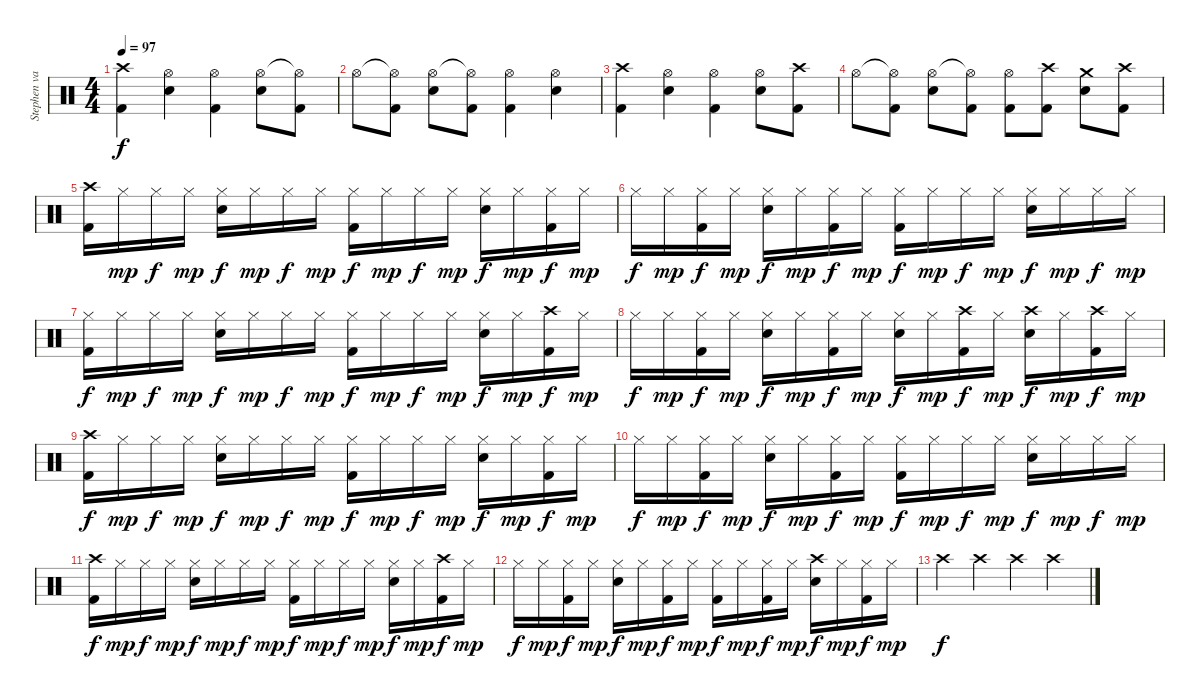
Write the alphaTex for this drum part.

\track ("Stephen van Haestregt (Drums)" "Stephen va") {instrument percussion}
\staff {score}
\articulation defaults
\ts (4 4)
\tempo 97
\clef neutral
\ks c
("Crash high (hit)" "Kick (hit) 2").4{dy f} ("Hi-Hat (open)" "Electric Snare (hit)").4 ("Hi-Hat (open)" "Kick (hit) 2").4 ("Hi-Hat (open)" "Electric Snare (hit)").8 ("Hi-Hat (open)"{t} "Kick (hit) 2").8 |
"Hi-Hat (open)".8 ("Hi-Hat (open)"{t} "Kick (hit) 2").8 ("Hi-Hat (open)" "Electric Snare (hit)").8 ("Hi-Hat (open)"{t} "Kick (hit) 2").8 ("Hi-Hat (open)" "Kick (hit) 2").4 ("Hi-Hat (open)" "Electric Snare (hit)").4 |
("Crash high (hit)" "Kick (hit) 2").4 ("Hi-Hat (open)" "Electric Snare (hit)").4 ("Hi-Hat (open)" "Kick (hit) 2").4 ("Hi-Hat (open)" "Electric Snare (hit)").8 ("Crash high (hit)" "Kick (hit) 2").8 |
"Hi-Hat (open)".8 ("Hi-Hat (open)"{t} "Kick (hit) 2").8 ("Hi-Hat (open)" "Electric Snare (hit)").8 ("Hi-Hat (open)"{t} "Kick (hit) 2").8 ("Hi-Hat (open)" "Kick (hit) 2").8 ("Crash high (hit)" "Kick (hit) 2").8 ("Crash medium (hit)" "Electric Snare (hit)").8 ("Crash high (hit)" "Kick (hit) 2").8 |
("Crash high (hit)" "Kick (hit) 2").16 "Hi-Hat (closed)".16{dy mp} "Hi-Hat (closed)".16{dy f} "Hi-Hat (closed)".16{dy mp} ("Hi-Hat (closed)" "Electric Snare (hit)").16{dy f} "Hi-Hat (closed)".16{dy mp} "Hi-Hat (closed)".16{dy f} "Hi-Hat (closed)".16{dy mp} ("Hi-Hat (closed)" "Kick (hit) 2").16{dy f} "Hi-Hat (closed)".16{dy mp} "Hi-Hat (closed)".16{dy f} "Hi-Hat (closed)".16{dy mp} ("Hi-Hat (closed)" "Electric Snare (hit)").16{dy f} "Hi-Hat (closed)".16{dy mp} ("Hi-Hat (closed)" "Kick (hit) 2").16{dy f} "Hi-Hat (closed)".16{dy mp} |
"Hi-Hat (closed)".16{dy f} "Hi-Hat (closed)".16{dy mp} ("Hi-Hat (closed)" "Kick (hit) 2").16{dy f} "Hi-Hat (closed)".16{dy mp} ("Hi-Hat (closed)" "Electric Snare (hit)").16{dy f} "Hi-Hat (closed)".16{dy mp} ("Hi-Hat (closed)" "Kick (hit) 2").16{dy f} "Hi-Hat (closed)".16{dy mp} ("Hi-Hat (closed)" "Kick (hit) 2").16{dy f} "Hi-Hat (closed)".16{dy mp} "Hi-Hat (closed)".16{dy f} "Hi-Hat (closed)".16{dy mp} ("Hi-Hat (closed)" "Electric Snare (hit)").16{dy f} "Hi-Hat (closed)".16{dy mp} "Hi-Hat (closed)".16{dy f} "Hi-Hat (closed)".16{dy mp} |
("Hi-Hat (closed)" "Kick (hit) 2").16{dy f} "Hi-Hat (closed)".16{dy mp} "Hi-Hat (closed)".16{dy f} "Hi-Hat (closed)".16{dy mp} ("Hi-Hat (closed)" "Electric Snare (hit)").16{dy f} "Hi-Hat (closed)".16{dy mp} "Hi-Hat (closed)".16{dy f} "Hi-Hat (closed)".16{dy mp} ("Hi-Hat (closed)" "Kick (hit) 2").16{dy f} "Hi-Hat (closed)".16{dy mp} "Hi-Hat (closed)".16{dy f} "Hi-Hat (closed)".16{dy mp} ("Hi-Hat (closed)" "Electric Snare (hit)").16{dy f} "Hi-Hat (closed)".16{dy mp} ("Crash high (hit)" "Kick (hit) 2").16{dy f} "Hi-Hat (closed)".16{dy mp} |
"Hi-Hat (closed)".16{dy f} "Hi-Hat (closed)".16{dy mp} ("Hi-Hat (closed)" "Kick (hit) 2").16{dy f} "Hi-Hat (closed)".16{dy mp} ("Hi-Hat (closed)" "Electric Snare (hit)").16{dy f} "Hi-Hat (closed)".16{dy mp} ("Hi-Hat (closed)" "Kick (hit) 2").16{dy f} "Hi-Hat (closed)".16{dy mp} ("Hi-Hat (closed)" "Electric Snare (hit)").16{dy f} "Hi-Hat (closed)".16{dy mp} ("Crash high (hit)" "Kick (hit) 2").16{dy f} "Hi-Hat (closed)".16{dy mp} ("Crash high (hit)" "Electric Snare (hit)").16{dy f} "Hi-Hat (closed)".16{dy mp} ("Crash high (hit)" "Kick (hit) 2").16{dy f} "Hi-Hat (closed)".16{dy mp} |
("Crash high (hit)" "Kick (hit) 2").16{dy f} "Hi-Hat (closed)".16{dy mp} "Hi-Hat (closed)".16{dy f} "Hi-Hat (closed)".16{dy mp} ("Hi-Hat (closed)" "Electric Snare (hit)").16{dy f} "Hi-Hat (closed)".16{dy mp} "Hi-Hat (closed)".16{dy f} "Hi-Hat (closed)".16{dy mp} ("Hi-Hat (closed)" "Kick (hit) 2").16{dy f} "Hi-Hat (closed)".16{dy mp} "Hi-Hat (closed)".16{dy f} "Hi-Hat (closed)".16{dy mp} ("Hi-Hat (closed)" "Electric Snare (hit)").16{dy f} "Hi-Hat (closed)".16{dy mp} ("Hi-Hat (closed)" "Kick (hit) 2").16{dy f} "Hi-Hat (closed)".16{dy mp} |
"Hi-Hat (closed)".16{dy f} "Hi-Hat (closed)".16{dy mp} ("Hi-Hat (closed)" "Kick (hit) 2").16{dy f} "Hi-Hat (closed)".16{dy mp} ("Hi-Hat (closed)" "Electric Snare (hit)").16{dy f} "Hi-Hat (closed)".16{dy mp} ("Hi-Hat (closed)" "Kick (hit) 2").16{dy f} "Hi-Hat (closed)".16{dy mp} ("Hi-Hat (closed)" "Kick (hit) 2").16{dy f} "Hi-Hat (closed)".16{dy mp} "Hi-Hat (closed)".16{dy f} "Hi-Hat (closed)".16{dy mp} ("Hi-Hat (closed)" "Electric Snare (hit)").16{dy f} "Hi-Hat (closed)".16{dy mp} "Hi-Hat (closed)".16{dy f} "Hi-Hat (closed)".16{dy mp} |
("Crash high (hit)" "Kick (hit) 2").16{dy f} "Hi-Hat (closed)".16{dy mp} "Hi-Hat (closed)".16{dy f} "Hi-Hat (closed)".16{dy mp} ("Hi-Hat (closed)" "Electric Snare (hit)").16{dy f} "Hi-Hat (closed)".16{dy mp} "Hi-Hat (closed)".16{dy f} "Hi-Hat (closed)".16{dy mp} ("Hi-Hat (closed)" "Kick (hit) 2").16{dy f} "Hi-Hat (closed)".16{dy mp} "Hi-Hat (closed)".16{dy f} "Hi-Hat (closed)".16{dy mp} ("Hi-Hat (closed)" "Electric Snare (hit)").16{dy f} "Hi-Hat (closed)".16{dy mp} ("Crash high (hit)" "Kick (hit) 2").16{dy f} "Hi-Hat (closed)".16{dy mp} |
"Hi-Hat (closed)".16{dy f} "Hi-Hat (closed)".16{dy mp} ("Hi-Hat (closed)" "Kick (hit) 2").16{dy f} "Hi-Hat (closed)".16{dy mp} ("Hi-Hat (closed)" "Electric Snare (hit)").16{dy f} "Hi-Hat (closed)".16{dy mp} ("Hi-Hat (closed)" "Kick (hit) 2").16{dy f} "Hi-Hat (closed)".16{dy mp} ("Hi-Hat (closed)" "Kick (hit) 2").16{dy f} "Hi-Hat (closed)".16{dy mp} ("Hi-Hat (closed)" "Kick (hit) 2").16{dy f} "Hi-Hat (closed)".16{dy mp} ("Crash high (hit)" "Electric Snare (hit)").16{dy f} "Hi-Hat (closed)".16{dy mp} ("Hi-Hat (closed)" "Kick (hit) 2").16{dy f} "Hi-Hat (closed)".16{dy mp} |
"Crash high (hit)".4{dy f} "Crash high (hit)".4 "Crash high (hit)".4 "Crash high (hit)".4
